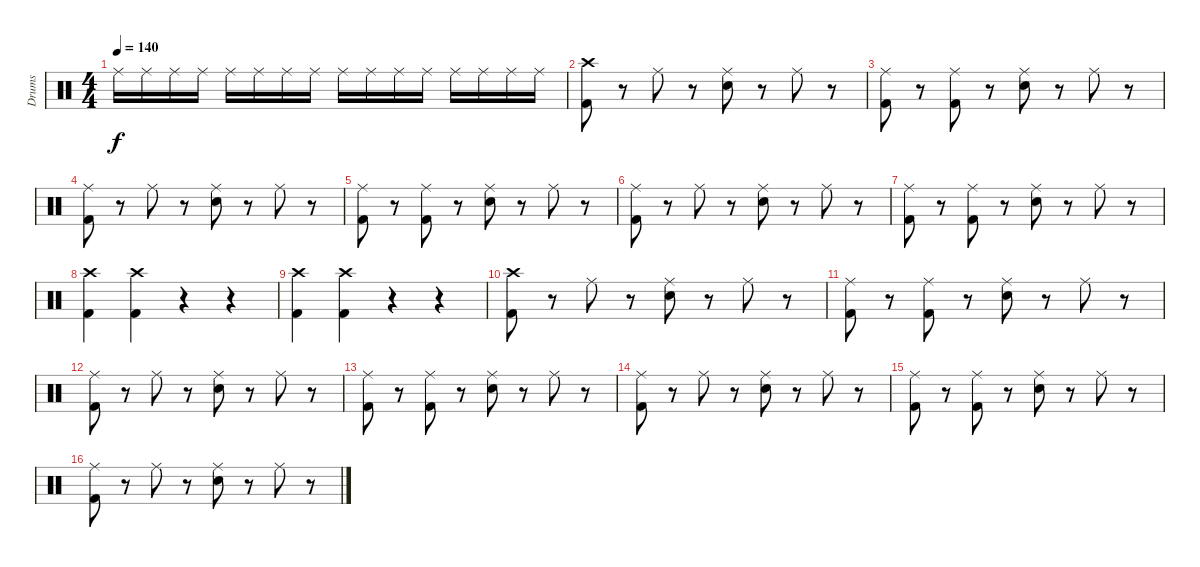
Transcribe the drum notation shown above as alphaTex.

\track ("Drums" "Drums") {instrument percussion}
\staff {score}
\articulation defaults
\ts (4 4)
\tempo 140
\clef neutral
\ks c "Ride (middle)".16{dy f} "Ride (middle)".16 "Ride (middle)".16 "Ride (middle)".16 "Ride (middle)".16 "Ride (middle)".16 "Ride (middle)".16 "Ride (middle)".16 "Ride (middle)".16 "Ride (middle)".16 "Ride (middle)".16 "Ride (middle)".16 "Ride (middle)".16 "Ride (middle)".16 "Ride (middle)".16 "Ride (middle)".16
|
("Crash high (hit)" "Kick (hit) 2").8 r.8 "Ride (middle)".8 r.8 ("Ride (middle)" "Electric Snare (hit)").8 r.8 "Ride (middle)".8 r.8 |
("Ride (middle)" "Kick (hit) 2").8 r.8 ("Ride (middle)" "Kick (hit) 2").8 r.8 ("Ride (middle)" "Electric Snare (hit)").8 r.8 "Ride (middle)".8 r.8 |
("Ride (middle)" "Kick (hit) 2").8 r.8 "Ride (middle)".8 r.8 ("Ride (middle)" "Electric Snare (hit)").8 r.8 "Ride (middle)".8 r.8 |
("Ride (middle)" "Kick (hit) 2").8 r.8 ("Ride (middle)" "Kick (hit) 2").8 r.8 ("Ride (middle)" "Electric Snare (hit)").8 r.8 "Ride (middle)".8 r.8 |
("Ride (middle)" "Kick (hit) 2").8 r.8 "Ride (middle)".8 r.8 ("Ride (middle)" "Electric Snare (hit)").8 r.8 "Ride (middle)".8 r.8 |
("Ride (middle)" "Kick (hit) 2").8 r.8 ("Ride (middle)" "Kick (hit) 2").8 r.8 ("Ride (middle)" "Electric Snare (hit)").8 r.8 "Ride (middle)".8 r.8 |
("Crash high (hit)" "Kick (hit) 2").4 ("Crash high (hit)" "Kick (hit) 2").4 r.4 r.4 |
("Crash high (hit)" "Kick (hit) 2").4 ("Crash high (hit)" "Kick (hit) 2").4 r.4 r.4 |
("Crash high (hit)" "Kick (hit) 2").8 r.8 "Ride (middle)".8 r.8 ("Ride (middle)" "Electric Snare (hit)").8 r.8 "Ride (middle)".8 r.8 |
("Ride (middle)" "Kick (hit) 2").8 r.8 ("Ride (middle)" "Kick (hit) 2").8 r.8 ("Ride (middle)" "Electric Snare (hit)").8 r.8 "Ride (middle)".8 r.8 |
("Ride (middle)" "Kick (hit) 2").8 r.8 "Ride (middle)".8 r.8 ("Ride (middle)" "Electric Snare (hit)").8 r.8 "Ride (middle)".8 r.8 |
("Ride (middle)" "Kick (hit) 2").8 r.8 ("Ride (middle)" "Kick (hit) 2").8 r.8 ("Ride (middle)" "Electric Snare (hit)").8 r.8 "Ride (middle)".8 r.8 |
("Ride (middle)" "Kick (hit) 2").8 r.8 "Ride (middle)".8 r.8 ("Ride (middle)" "Electric Snare (hit)").8 r.8 "Ride (middle)".8 r.8 |
("Ride (middle)" "Kick (hit) 2").8 r.8 ("Ride (middle)" "Kick (hit) 2").8 r.8 ("Ride (middle)" "Electric Snare (hit)").8 r.8 "Ride (middle)".8 r.8 |
("Ride (middle)" "Kick (hit) 2").8 r.8 "Ride (middle)".8 r.8 ("Ride (middle)" "Electric Snare (hit)").8 r.8 "Ride (middle)".8 r.8
